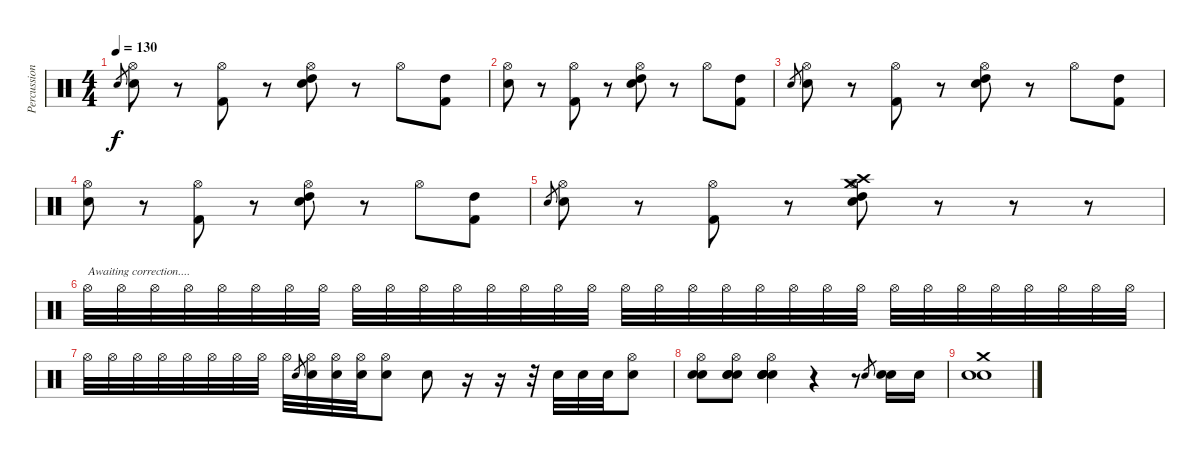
\track ("Percussion" "Percussion") {instrument percussion}
\staff {score}
\articulation defaults
\ts (4 4)
\tempo 130
\clef neutral
\ks c "Snare (hit) 2".8{gr dy f}
("Hi-Hat (open)" "Snare (hit) 2").8 r.8 ("Hi-Hat (open)" "Kick (hit) 2").8 r.8 ("Hi-Hat (open)" "High Tom (hit)" "Snare (hit) 2").8 r.8 "Hi-Hat (open)".8 ("High Tom (hit)" "Kick (hit) 2").8 |
("Hi-Hat (open)" "Snare (hit) 2").8 r.8 ("Hi-Hat (open)" "Kick (hit) 2").8 r.8 ("Hi-Hat (open)" "High Tom (hit)" "Snare (hit) 2").8 r.8 "Hi-Hat (open)".8 ("High Tom (hit)" "Kick (hit) 2").8 |
"Snare (hit) 2".8{gr} ("Hi-Hat (open)" "Snare (hit) 2").8 r.8 ("Hi-Hat (open)" "Kick (hit) 2").8 r.8 ("Hi-Hat (open)" "High Tom (hit)" "Snare (hit) 2").8 r.8 "Hi-Hat (open)".8 ("High Tom (hit)" "Kick (hit) 2").8 |
("Hi-Hat (open)" "Snare (hit) 2").8 r.8 ("Hi-Hat (open)" "Kick (hit) 2").8 r.8 ("Hi-Hat (open)" "High Tom (hit)" "Snare (hit) 2").8 r.8 "Hi-Hat (open)".8 ("High Tom (hit)" "Kick (hit) 2").8 |
"Snare (hit) 2".8{gr} ("Hi-Hat (open)" "Snare (hit) 2").8 r.8 ("Hi-Hat (open)" "Kick (hit) 2").8 r.8 ("Crash high (hit)" "Hi-Hat (open)" "Crash medium (hit)" "High Tom (hit)" "Snare (hit) 2").8 r.8 r.8 r.8{volume 7} |
"Hi-Hat (open)".32{txt "Awaiting correction...." volume 16} "Hi-Hat (open)".32 "Hi-Hat (open)".32 "Hi-Hat (open)".32 "Hi-Hat (open)".32 "Hi-Hat (open)".32 "Hi-Hat (open)".32 "Hi-Hat (open)".32 "Hi-Hat (open)".32 "Hi-Hat (open)".32 "Hi-Hat (open)".32 "Hi-Hat (open)".32 "Hi-Hat (open)".32 "Hi-Hat (open)".32 "Hi-Hat (open)".32 "Hi-Hat (open)".32 "Hi-Hat (open)".32 "Hi-Hat (open)".32 "Hi-Hat (open)".32 "Hi-Hat (open)".32 "Hi-Hat (open)".32 "Hi-Hat (open)".32 "Hi-Hat (open)".32 "Hi-Hat (open)".32 "Hi-Hat (open)".32 "Hi-Hat (open)".32 "Hi-Hat (open)".32 "Hi-Hat (open)".32 "Hi-Hat (open)".32 "Hi-Hat (open)".32 "Hi-Hat (open)".32 "Hi-Hat (open)".32 |
"Hi-Hat (open)".32 "Hi-Hat (open)".32 "Hi-Hat (open)".32 "Hi-Hat (open)".32 "Hi-Hat (open)".32 "Hi-Hat (open)".32 "Hi-Hat (open)".32 "Hi-Hat (open)".32 "Hi-Hat (open)".32 "Snare (hit) 2".8{gr} ("Snare (hit) 2" "Hi-Hat (open)").32 ("Electric Snare (hit)" "Hi-Hat (open)").32 ("Electric Snare (hit)" "Hi-Hat (open)").32 ("Electric Snare (hit)" "Hi-Hat (open)").8 "Electric Snare (hit)".8 r.16 r.16 r.32 "Electric Snare (hit)".32 "Electric Snare (hit)".32 "Electric Snare (hit)".32 ("Hi-Hat (open)" "Electric Snare (hit)").8 |
("Hi-Hat (open)" "Snare (hit) 2" "Electric Snare (hit)").8 ("Hi-Hat (open)" "Snare (hit) 2" "Electric Snare (hit)" "Electric Snare (hit)").8 ("Hi-Hat (open)" "Snare (hit) 2" "Electric Snare (hit)" "Electric Snare (hit)" "Electric Snare (hit)").4 r.4 r.8 "Snare (hit) 2".8{gr} ("Snare (hit) 2" "Snare (hit) 2").16 "Snare (hit) 2".16 |
("Crash medium (hit)" "Snare (hit) 2" "Electric Snare (hit)").1
